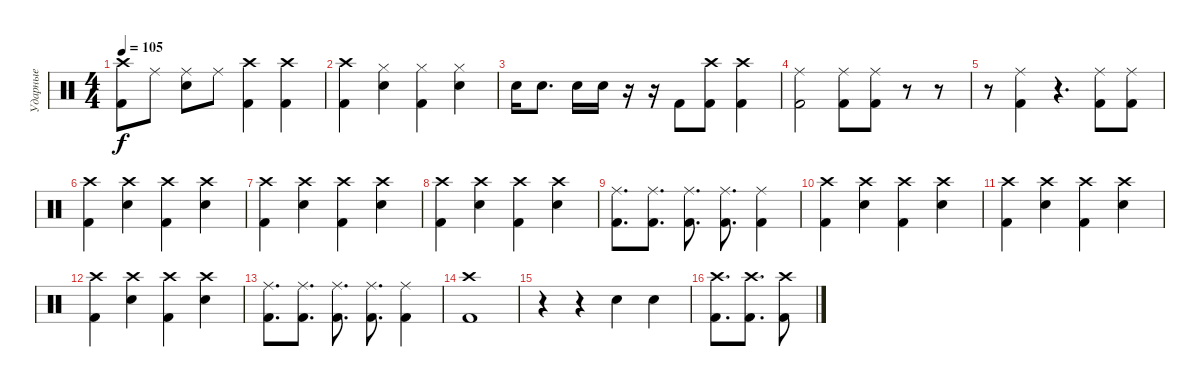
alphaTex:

\track ("Ударные" "Ударные") {instrument percussion}
\staff {score}
\articulation defaults
\ts (4 4)
\tempo 105
\clef neutral
\ks c
("Crash high (hit)" "Kick (hit) 2").8{dy f} "Ride (middle)".8 ("Electric Snare (hit)" "Ride (middle)").8 "Ride (middle)".8 ("Crash high (hit)" "Kick (hit) 2").4 ("Kick (hit) 2" "Crash high (hit)").4 |
("Kick (hit) 2" "Crash high (hit)").4 ("Hi-Hat (closed)" "Electric Snare (hit)").4 ("Hi-Hat (closed)" "Kick (hit) 2").4 ("Hi-Hat (closed)" "Electric Snare (hit)").4 |
"Electric Snare (hit)".16 "Electric Snare (hit)".8{d} "Electric Snare (hit)".16 "Electric Snare (hit)".16 r.16 r.16 "Kick (hit) 2".8 ("Crash high (hit)" "Kick (hit) 2").8 ("Kick (hit) 2" "Crash high (hit)").4 |
("Kick (hit) 2" "Ride (middle)").2 ("Kick (hit) 2" "Ride (middle)").8 ("Kick (hit) 2" "Ride (middle)").8 r.8 r.8 |
r.8 ("Ride (middle)" "Kick (hit) 2").4 r.4{d} ("Ride (middle)" "Kick (hit) 2").8 ("Kick (hit) 2" "Ride (middle)").8 |
("Crash high (hit)" "Kick (hit) 2").4 ("Crash high (hit)" "Electric Snare (hit)").4 ("Kick (hit) 2" "Crash high (hit)").4 ("Crash high (hit)" "Electric Snare (hit)").4 |
("Crash high (hit)" "Kick (hit) 2").4 ("Crash high (hit)" "Electric Snare (hit)").4 ("Kick (hit) 2" "Crash high (hit)").4 ("Crash high (hit)" "Electric Snare (hit)").4 |
("Crash high (hit)" "Kick (hit) 2").4 ("Crash high (hit)" "Electric Snare (hit)").4 ("Kick (hit) 2" "Crash high (hit)").4 ("Crash high (hit)" "Electric Snare (hit)").4 |
("Ride (middle)" "Kick (hit) 2").8{d} ("Ride (middle)" "Kick (hit) 2").8{d} ("Ride (middle)" "Kick (hit) 2").8{d} ("Ride (middle)" "Kick (hit) 2").8{d} ("Kick (hit) 2" "Ride (middle)").4 |
("Crash high (hit)" "Kick (hit) 2").4 ("Crash high (hit)" "Electric Snare (hit)").4 ("Kick (hit) 2" "Crash high (hit)").4 ("Crash high (hit)" "Electric Snare (hit)").4 |
("Crash high (hit)" "Kick (hit) 2").4 ("Crash high (hit)" "Electric Snare (hit)").4 ("Kick (hit) 2" "Crash high (hit)").4 ("Crash high (hit)" "Electric Snare (hit)").4 |
("Crash high (hit)" "Kick (hit) 2").4 ("Crash high (hit)" "Electric Snare (hit)").4 ("Kick (hit) 2" "Crash high (hit)").4 ("Crash high (hit)" "Electric Snare (hit)").4 |
("Ride (middle)" "Kick (hit) 2").8{d} ("Ride (middle)" "Kick (hit) 2").8{d} ("Ride (middle)" "Kick (hit) 2").8{d} ("Ride (middle)" "Kick (hit) 2").8{d} ("Kick (hit) 2" "Ride (middle)").4 |
("Crash high (hit)" "Kick (hit) 2").1 |
r.4 r.4 "Electric Snare (hit)".4 "Electric Snare (hit)".4 |
("Crash high (hit)" "Kick (hit) 2").8{d} ("Kick (hit) 2" "Crash high (hit)").8{d} ("Crash high (hit)" "Kick (hit) 2").8
